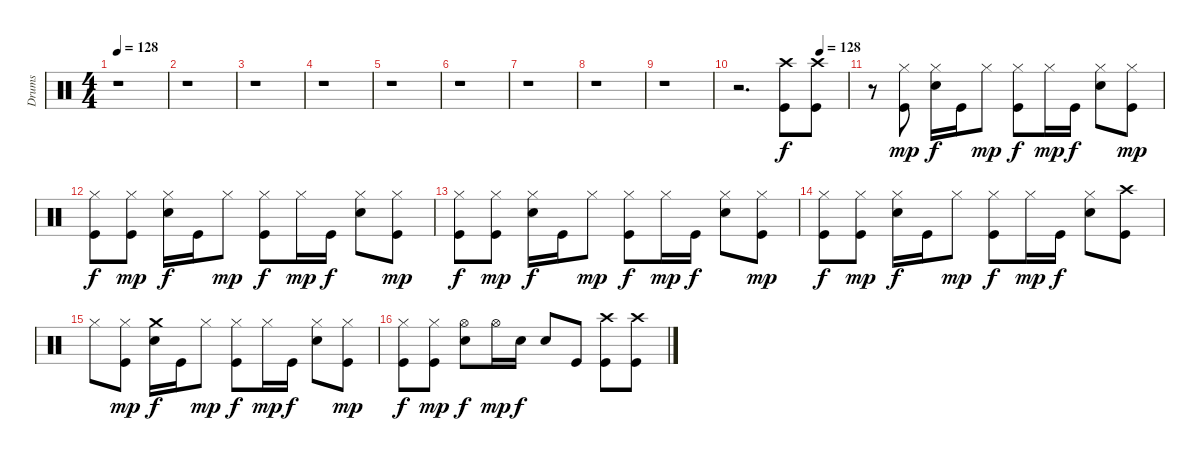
\track ("Drums" "Drums") {instrument percussion}
\staff {score}
\articulation defaults
\ts (4 4)
\tempo 128
\tempo 160
\tempo 128
\clef neutral
\ks c
r.1{dy f} |
r.1 |
r.1 |
r.1 |
r.1 |
r.1 |
r.1 |
r.1 |
r.1 |
\tempo (128 0.75)
r.2{d} ("Crash high (hit)" "Kick (hit)").8 ("Crash high (hit)" "Kick (hit)").8 |
r.8 ("Hi-Hat (closed)" "Kick (hit)").8{dy mp} ("Hi-Hat (closed)" "Snare (hit) 2").16{dy f} "Kick (hit)".16 "Hi-Hat (closed)".8{dy mp} ("Hi-Hat (closed)" "Kick (hit)").8{dy f} "Hi-Hat (closed)".16{dy mp} "Kick (hit)".16{dy f} ("Hi-Hat (closed)" "Snare (hit) 2").8 ("Hi-Hat (closed)" "Kick (hit)").8{dy mp} |
("Hi-Hat (closed)" "Kick (hit)").8{dy f} ("Hi-Hat (closed)" "Kick (hit)").8{dy mp} ("Hi-Hat (closed)" "Snare (hit) 2").16{dy f} "Kick (hit)".16 "Hi-Hat (closed)".8{dy mp} ("Hi-Hat (closed)" "Kick (hit)").8{dy f} "Hi-Hat (closed)".16{dy mp} "Kick (hit)".16{dy f} ("Hi-Hat (closed)" "Snare (hit) 2").8 ("Hi-Hat (closed)" "Kick (hit)").8{dy mp} |
("Hi-Hat (closed)" "Kick (hit)").8{dy f} ("Hi-Hat (closed)" "Kick (hit)").8{dy mp} ("Hi-Hat (closed)" "Snare (hit) 2").16{dy f} "Kick (hit)".16 "Hi-Hat (closed)".8{dy mp} ("Hi-Hat (closed)" "Kick (hit)").8{dy f} "Hi-Hat (closed)".16{dy mp} "Kick (hit)".16{dy f} ("Hi-Hat (closed)" "Snare (hit) 2").8 ("Hi-Hat (closed)" "Kick (hit)").8{dy mp} |
("Hi-Hat (closed)" "Kick (hit)").8{dy f} ("Hi-Hat (closed)" "Kick (hit)").8{dy mp} ("Hi-Hat (closed)" "Snare (hit) 2").16{dy f} "Kick (hit)".16 "Hi-Hat (closed)".8{dy mp} ("Hi-Hat (closed)" "Kick (hit)").8{dy f} "Hi-Hat (closed)".16{dy mp} "Kick (hit)".16{dy f} ("Hi-Hat (closed)" "Snare (hit) 2").8 ("Crash high (hit)" "Kick (hit)").8 |
"Hi-Hat (closed)".8 ("Hi-Hat (closed)" "Kick (hit)").8{dy mp} ("Crash medium (hit)" "Snare (hit) 2").16{dy f} "Kick (hit)".16 "Hi-Hat (closed)".8{dy mp} ("Hi-Hat (closed)" "Kick (hit)").8{dy f} "Hi-Hat (closed)".16{dy mp} "Kick (hit)".16{dy f} ("Hi-Hat (closed)" "Snare (hit) 2").8 ("Hi-Hat (closed)" "Kick (hit)").8{dy mp} |
("Hi-Hat (closed)" "Kick (hit)").8{dy f} ("Hi-Hat (closed)" "Kick (hit)").8{dy mp} ("Hi-Hat (open)" "Snare (hit) 2").8{dy f} "Hi-Hat (open)".16{dy mp} "Snare (hit) 2".16{dy f} "Snare (hit) 2".8 "Kick (hit)".8 ("Crash high (hit)" "Kick (hit)").8 ("Crash high (hit)" "Kick (hit)").8
